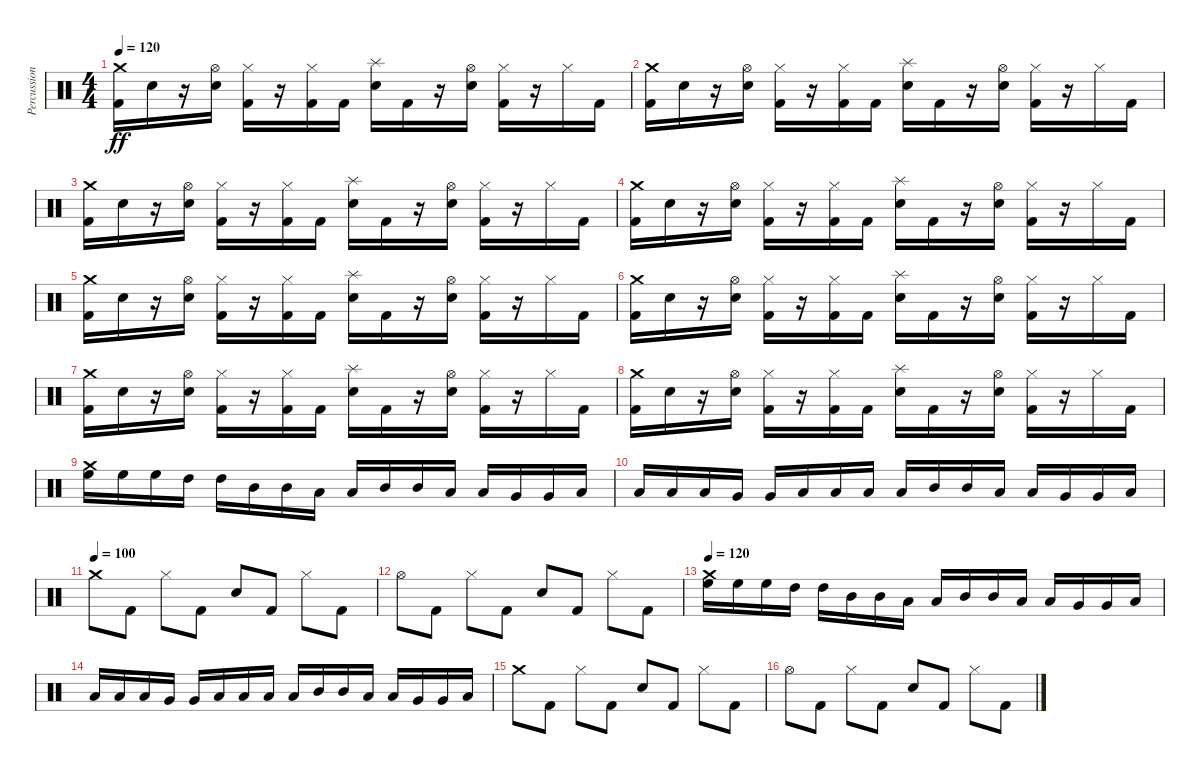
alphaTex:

\track ("Percussion" "Percussion") {instrument percussion}
\staff {score}
\articulation defaults
\ts (4 4)
\tempo 120
\clef neutral
\ks c
("Crash medium (hit)" "Kick (hit) 2").16{dy ff} "Electric Snare (hit)".16 r.16 ("Hi-Hat (open)" "Electric Snare (hit)").16 ("Hi-Hat (closed)" "Kick (hit) 2").16 r.16 ("Hi-Hat (closed)" "Kick (hit) 2").16 "Kick (hit) 2".16 ("Splash (hit)" "Electric Snare (hit)").16 "Kick (hit) 2".16 r.16 ("Hi-Hat (open)" "Electric Snare (hit)").16 ("Hi-Hat (closed)" "Kick (hit) 2").16 r.16 "Hi-Hat (closed)".16 "Kick (hit) 2".16 |
("Crash medium (hit)" "Kick (hit) 2").16 "Electric Snare (hit)".16 r.16 ("Hi-Hat (open)" "Electric Snare (hit)").16 ("Hi-Hat (closed)" "Kick (hit) 2").16 r.16 ("Hi-Hat (closed)" "Kick (hit) 2").16 "Kick (hit) 2".16 ("Splash (hit)" "Electric Snare (hit)").16 "Kick (hit) 2".16 r.16 ("Hi-Hat (open)" "Electric Snare (hit)").16 ("Hi-Hat (closed)" "Kick (hit) 2").16 r.16 "Hi-Hat (closed)".16 "Kick (hit) 2".16 |
("Crash medium (hit)" "Kick (hit) 2").16 "Electric Snare (hit)".16 r.16 ("Hi-Hat (open)" "Electric Snare (hit)").16 ("Hi-Hat (closed)" "Kick (hit) 2").16 r.16 ("Hi-Hat (closed)" "Kick (hit) 2").16 "Kick (hit) 2".16 ("Splash (hit)" "Electric Snare (hit)").16 "Kick (hit) 2".16 r.16 ("Hi-Hat (open)" "Electric Snare (hit)").16 ("Hi-Hat (closed)" "Kick (hit) 2").16 r.16 "Hi-Hat (closed)".16 "Kick (hit) 2".16 |
("Crash medium (hit)" "Kick (hit) 2").16 "Electric Snare (hit)".16 r.16 ("Hi-Hat (open)" "Electric Snare (hit)").16 ("Hi-Hat (closed)" "Kick (hit) 2").16 r.16 ("Hi-Hat (closed)" "Kick (hit) 2").16 "Kick (hit) 2".16 ("Splash (hit)" "Electric Snare (hit)").16 "Kick (hit) 2".16 r.16 ("Hi-Hat (open)" "Electric Snare (hit)").16 ("Hi-Hat (closed)" "Kick (hit) 2").16 r.16 "Hi-Hat (closed)".16 "Kick (hit) 2".16 |
("Crash medium (hit)" "Kick (hit) 2").16 "Electric Snare (hit)".16 r.16 ("Hi-Hat (open)" "Electric Snare (hit)").16 ("Hi-Hat (closed)" "Kick (hit) 2").16 r.16 ("Hi-Hat (closed)" "Kick (hit) 2").16 "Kick (hit) 2".16 ("Splash (hit)" "Electric Snare (hit)").16 "Kick (hit) 2".16 r.16 ("Hi-Hat (open)" "Electric Snare (hit)").16 ("Hi-Hat (closed)" "Kick (hit) 2").16 r.16 "Hi-Hat (closed)".16 "Kick (hit) 2".16 |
("Crash medium (hit)" "Kick (hit) 2").16 "Electric Snare (hit)".16 r.16 ("Hi-Hat (open)" "Electric Snare (hit)").16 ("Hi-Hat (closed)" "Kick (hit) 2").16 r.16 ("Hi-Hat (closed)" "Kick (hit) 2").16 "Kick (hit) 2".16 ("Splash (hit)" "Electric Snare (hit)").16 "Kick (hit) 2".16 r.16 ("Hi-Hat (open)" "Electric Snare (hit)").16 ("Hi-Hat (closed)" "Kick (hit) 2").16 r.16 "Hi-Hat (closed)".16 "Kick (hit) 2".16 |
("Crash medium (hit)" "Kick (hit) 2").16 "Electric Snare (hit)".16 r.16 ("Hi-Hat (open)" "Electric Snare (hit)").16 ("Hi-Hat (closed)" "Kick (hit) 2").16 r.16 ("Hi-Hat (closed)" "Kick (hit) 2").16 "Kick (hit) 2".16 ("Splash (hit)" "Electric Snare (hit)").16 "Kick (hit) 2".16 r.16 ("Hi-Hat (open)" "Electric Snare (hit)").16 ("Hi-Hat (closed)" "Kick (hit) 2").16 r.16 "Hi-Hat (closed)".16 "Kick (hit) 2".16 |
("Crash medium (hit)" "Kick (hit) 2").16 "Electric Snare (hit)".16 r.16 ("Hi-Hat (open)" "Electric Snare (hit)").16 ("Hi-Hat (closed)" "Kick (hit) 2").16 r.16 ("Hi-Hat (closed)" "Kick (hit) 2").16 "Kick (hit) 2".16 ("Splash (hit)" "Electric Snare (hit)").16 "Kick (hit) 2".16 r.16 ("Hi-Hat (open)" "Electric Snare (hit)").16 ("Hi-Hat (closed)" "Kick (hit) 2").16 r.16 "Hi-Hat (closed)".16 "Kick (hit) 2".16 |
("Crash medium (hit)" "High Floor Tom (hit)").16 "High Floor Tom (hit)".16 "High Floor Tom (hit)".16 "High Tom (hit)".16 "High Tom (hit)".16 "Mid Tom (hit)".16 "Mid Tom (hit)".16 "Low Tom (hit)".16 "Low Tom (hit)".16 "Mid Tom (hit)".16 "Mid Tom (hit)".16 "Low Tom (hit)".16 "Low Tom (hit)".16 "Very Low Tom (hit)".16 "Very Low Tom (hit)".16 "Low Floor Tom (hit)".16 |
"Low Floor Tom (hit)".16 "Low Tom (hit)".16 "Low Tom (hit)".16 "Very Low Tom (hit)".16 "Very Low Tom (hit)".16 "Low Floor Tom (hit)".16 "Low Floor Tom (hit)".16 "Low Tom (hit)".16 "Low Tom (hit)".16 "Mid Tom (hit)".16 "Mid Tom (hit)".16 "Low Tom (hit)".16 "Low Tom (hit)".16 "Very Low Tom (hit)".16 "Very Low Tom (hit)".16 "Low Floor Tom (hit)".16 |
\tempo (100)
"Crash medium (hit)".8 "Kick (hit) 2".8 "Hi-Hat (closed)".8 "Kick (hit) 2".8 "Electric Snare (hit)".8 "Kick (hit) 2".8 "Hi-Hat (closed)".8 "Kick (hit) 2".8 |
"Hi-Hat (open)".8 "Kick (hit) 2".8 "Hi-Hat (closed)".8 "Kick (hit) 2".8 "Electric Snare (hit)".8 "Kick (hit) 2".8 "Hi-Hat (closed)".8 "Kick (hit) 2".8 |
\tempo 120
("Crash medium (hit)" "High Floor Tom (hit)").16 "High Floor Tom (hit)".16 "High Floor Tom (hit)".16 "High Tom (hit)".16 "High Tom (hit)".16 "Mid Tom (hit)".16 "Mid Tom (hit)".16 "Low Tom (hit)".16 "Low Tom (hit)".16 "Mid Tom (hit)".16 "Mid Tom (hit)".16 "Low Tom (hit)".16 "Low Tom (hit)".16 "Very Low Tom (hit)".16 "Very Low Tom (hit)".16 "Low Floor Tom (hit)".16 |
"Low Floor Tom (hit)".16 "Low Tom (hit)".16 "Low Tom (hit)".16 "Very Low Tom (hit)".16 "Very Low Tom (hit)".16 "Low Floor Tom (hit)".16 "Low Floor Tom (hit)".16 "Low Tom (hit)".16 "Low Tom (hit)".16 "Mid Tom (hit)".16 "Mid Tom (hit)".16 "Low Tom (hit)".16 "Low Tom (hit)".16 "Very Low Tom (hit)".16 "Very Low Tom (hit)".16 "Low Floor Tom (hit)".16 |
"Crash medium (hit)".8 "Kick (hit) 2".8 "Hi-Hat (closed)".8 "Kick (hit) 2".8 "Electric Snare (hit)".8 "Kick (hit) 2".8 "Hi-Hat (closed)".8 "Kick (hit) 2".8 |
"Hi-Hat (open)".8 "Kick (hit) 2".8 "Hi-Hat (closed)".8 "Kick (hit) 2".8 "Electric Snare (hit)".8 "Kick (hit) 2".8 "Hi-Hat (closed)".8 "Kick (hit) 2".8
